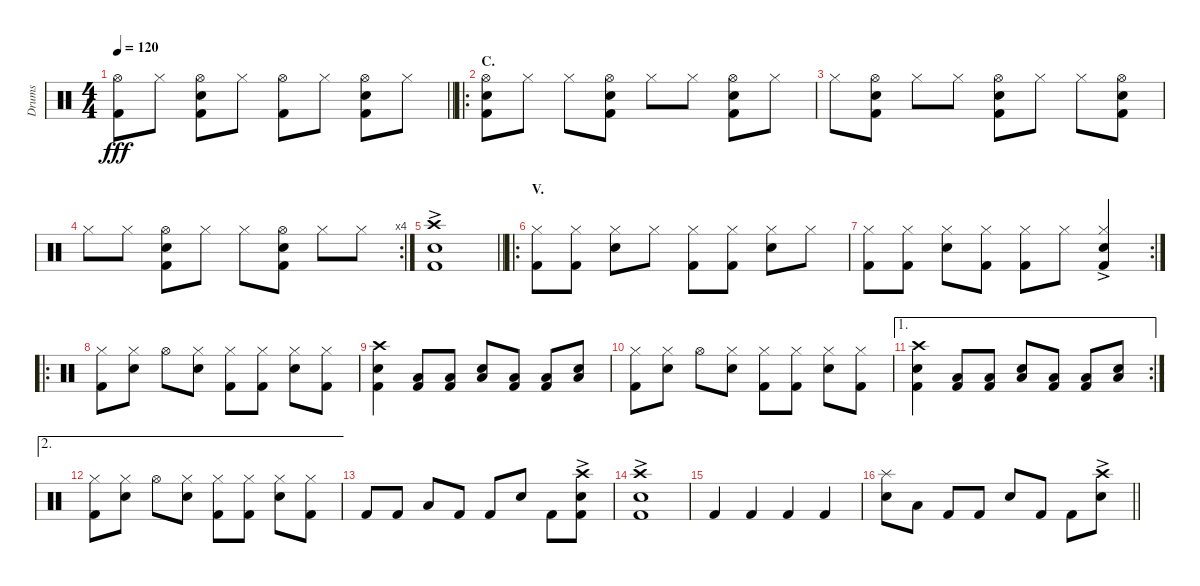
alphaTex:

\track ("Drums" "Drums") {instrument percussion}
\staff {score}
\articulation defaults
\ts (4 4)
\tempo 120
\clef neutral
\barLineRight lightlight
\ks c
("Hi-Hat (open)" "Kick (hit) 2").8{dy fff} "Hi-Hat (closed)".8 ("Hi-Hat (open)" "Electric Snare (hit)" "Kick (hit) 2").8 "Hi-Hat (closed)".8 ("Hi-Hat (open)" "Kick (hit) 2").8 "Hi-Hat (closed)".8 ("Hi-Hat (open)" "Electric Snare (hit)" "Kick (hit) 2").8 "Hi-Hat (closed)".8 |
\ro
\section ("" "C.")
("Hi-Hat (open)" "Electric Snare (hit)" "Kick (hit) 2").8 "Hi-Hat (closed)".8 "Hi-Hat (closed)".8 ("Hi-Hat (open)" "Electric Snare (hit)" "Kick (hit) 2").8 "Hi-Hat (closed)".8 "Hi-Hat (closed)".8 ("Hi-Hat (open)" "Electric Snare (hit)" "Kick (hit) 2").8 "Hi-Hat (closed)".8 |
"Hi-Hat (closed)".8 ("Hi-Hat (open)" "Electric Snare (hit)" "Kick (hit) 2").8 "Hi-Hat (closed)".8 "Hi-Hat (closed)".8 ("Hi-Hat (open)" "Electric Snare (hit)" "Kick (hit) 2").8 "Hi-Hat (closed)".8 "Hi-Hat (closed)".8 ("Hi-Hat (open)" "Electric Snare (hit)" "Kick (hit) 2").8 |
\rc 4 "Hi-Hat (closed)".8 "Hi-Hat (closed)".8
("Hi-Hat (open)" "Electric Snare (hit)" "Kick (hit) 2").8 "Hi-Hat (closed)".8 "Hi-Hat (closed)".8 ("Hi-Hat (open)" "Electric Snare (hit)" "Kick (hit) 2").8 "Hi-Hat (closed)".8 "Hi-Hat (closed)".8 |
\barLineRight lightlight
("Crash high (hit)"{ac} "Electric Snare (hit)"{ac} "Kick (hit) 2"{ac}).1 |
\ro
\section ("" "V.")
("Hi-Hat (closed)" "Kick (hit) 2").8 ("Hi-Hat (closed)" "Kick (hit) 2").8 ("Hi-Hat (closed)" "Electric Snare (hit)").8 "Hi-Hat (closed)".8 ("Hi-Hat (closed)" "Kick (hit) 2").8 ("Hi-Hat (closed)" "Kick (hit) 2").8 ("Hi-Hat (closed)" "Electric Snare (hit)").8 "Hi-Hat (closed)".8 |
\rc 2
("Hi-Hat (closed)" "Kick (hit) 2").8 ("Hi-Hat (closed)" "Kick (hit) 2").8 ("Hi-Hat (closed)" "Electric Snare (hit)").8 ("Hi-Hat (closed)" "Kick (hit) 2").8 ("Hi-Hat (closed)" "Kick (hit) 2").8 "Hi-Hat (closed)".8 ("Hi-Hat (closed)"{ac} "Electric Snare (hit)"{ac} "Kick (hit) 2").4 |
\ro
("Hi-Hat (closed)" "Kick (hit) 2").8 ("Hi-Hat (closed)" "Electric Snare (hit)").8 "Hi-Hat (open)".8 ("Hi-Hat (closed)" "Electric Snare (hit)").8 ("Hi-Hat (closed)" "Kick (hit) 2").8 ("Hi-Hat (closed)" "Kick (hit) 2").8 ("Hi-Hat (closed)" "Electric Snare (hit)").8 ("Hi-Hat (closed)" "Kick (hit) 2").8 |
("Crash high (hit)" "Electric Snare (hit)" "Kick (hit) 2").4 ("Low Floor Tom (hit)" "Kick (hit) 2").8 ("Low Floor Tom (hit)" "Kick (hit) 2").8 ("Low Floor Tom (hit)" "Electric Snare (hit)").8 ("Low Floor Tom (hit)" "Kick (hit) 2").8 ("Low Floor Tom (hit)" "Kick (hit) 2").8 ("Low Floor Tom (hit)" "Electric Snare (hit)").8 |
("Hi-Hat (closed)" "Kick (hit) 2").8 ("Hi-Hat (closed)" "Electric Snare (hit)").8 "Hi-Hat (open)".8 ("Hi-Hat (closed)" "Electric Snare (hit)").8 ("Hi-Hat (closed)" "Kick (hit) 2").8 ("Hi-Hat (closed)" "Kick (hit) 2").8 ("Hi-Hat (closed)" "Electric Snare (hit)").8 ("Hi-Hat (closed)" "Kick (hit) 2").8 |
\ae 1
\rc 2
("Crash high (hit)" "Electric Snare (hit)" "Kick (hit) 2").4 ("Low Floor Tom (hit)" "Kick (hit) 2").8 ("Low Floor Tom (hit)" "Kick (hit) 2").8 ("Low Tom (hit)" "Electric Snare (hit)").8 ("Low Floor Tom (hit)" "Kick (hit) 2").8 ("Low Floor Tom (hit)" "Kick (hit) 2").8 ("Low Tom (hit)" "Electric Snare (hit)").8 |
\ae 2
("Hi-Hat (closed)" "Kick (hit) 2").8 ("Hi-Hat (closed)" "Electric Snare (hit)").8 "Hi-Hat (open)".8 ("Hi-Hat (closed)" "Electric Snare (hit)").8 ("Hi-Hat (closed)" "Kick (hit) 2").8 ("Hi-Hat (closed)" "Kick (hit) 2").8 ("Hi-Hat (closed)" "Electric Snare (hit)").8 ("Hi-Hat (closed)" "Kick (hit) 2").8 |
"Kick (hit) 2".8 "Kick (hit) 2".8 "Low Floor Tom (hit)".8 "Kick (hit) 2".8 "Kick (hit) 2".8 "Electric Snare (hit)".8 "Kick (hit) 2".8 ("Crash high (hit)"{ac} "Electric Snare (hit)"{ac} "Kick (hit) 2"{ac}).8 |
("Crash high (hit)"{ac} "Electric Snare (hit)"{ac} "Kick (hit) 2"{ac}).1 |
"Kick (hit) 2".4 "Kick (hit) 2".4 "Kick (hit) 2".4 "Kick (hit) 2".4 |
\barLineRight lightlight
("Splash (hit)" "Electric Snare (hit)").8 "Low Floor Tom (hit)".8 "Kick (hit) 2".8 "Kick (hit) 2".8 "Electric Snare (hit)".8 "Kick (hit) 2".8 "Kick (hit) 2".8 ("Crash high (hit)"{ac} "Electric Snare (hit)"{ac}).8
